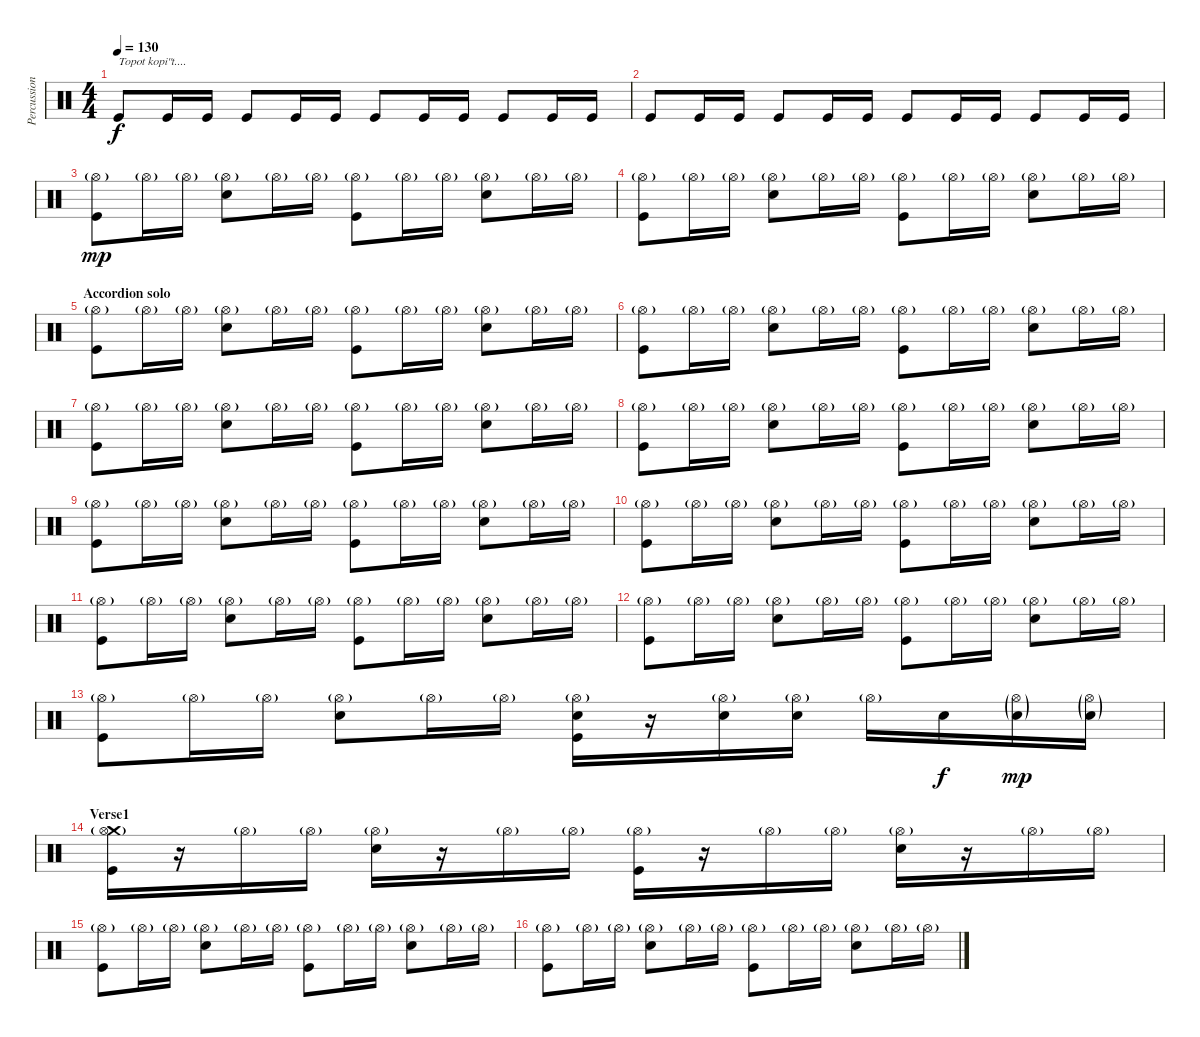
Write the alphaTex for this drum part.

\track ("Percussion" "Percussion") {instrument percussion}
\staff {score}
\articulation defaults
\ts (4 4)
\tempo 130
\clef neutral
\ks c "Kick (hit)".8{txt "Topot kopi\"t...." dy f balance 16} "Kick (hit)".16 "Kick (hit)".16 "Kick (hit)".8 "Kick (hit)".16 "Kick (hit)".16 "Kick (hit)".8 "Kick (hit)".16 "Kick (hit)".16 "Kick (hit)".8 "Kick (hit)".16 "Kick (hit)".16
|
"Kick (hit)".8 "Kick (hit)".16 "Kick (hit)".16 "Kick (hit)".8 "Kick (hit)".16 "Kick (hit)".16 "Kick (hit)".8 "Kick (hit)".16 "Kick (hit)".16 "Kick (hit)".8 "Kick (hit)".16 "Kick (hit)".16 |
\section ("" "")
("Hi-Hat (open)"{g} "Kick (hit)").8{dy mp balance 8} "Hi-Hat (open)"{g}.16 "Hi-Hat (open)"{g}.16 ("Hi-Hat (open)"{g} "Snare (hit) 2").8 "Hi-Hat (open)"{g}.16 "Hi-Hat (open)"{g}.16 ("Hi-Hat (open)"{g} "Kick (hit)").8 "Hi-Hat (open)"{g}.16 "Hi-Hat (open)"{g}.16 ("Hi-Hat (open)"{g} "Snare (hit) 2").8 "Hi-Hat (open)"{g}.16 "Hi-Hat (open)"{g}.16 |
("Hi-Hat (open)"{g} "Kick (hit)").8 "Hi-Hat (open)"{g}.16 "Hi-Hat (open)"{g}.16 ("Hi-Hat (open)"{g} "Snare (hit) 2").8 "Hi-Hat (open)"{g}.16 "Hi-Hat (open)"{g}.16 ("Hi-Hat (open)"{g} "Kick (hit)").8 "Hi-Hat (open)"{g}.16 "Hi-Hat (open)"{g}.16 ("Hi-Hat (open)"{g} "Snare (hit) 2").8 "Hi-Hat (open)"{g}.16 "Hi-Hat (open)"{g}.16 |
\section ("" "Accordion solo")
("Hi-Hat (open)"{g} "Kick (hit)").8{balance 8} "Hi-Hat (open)"{g}.16 "Hi-Hat (open)"{g}.16 ("Hi-Hat (open)"{g} "Snare (hit) 2").8 "Hi-Hat (open)"{g}.16 "Hi-Hat (open)"{g}.16 ("Hi-Hat (open)"{g} "Kick (hit)").8 "Hi-Hat (open)"{g}.16 "Hi-Hat (open)"{g}.16 ("Hi-Hat (open)"{g} "Snare (hit) 2").8 "Hi-Hat (open)"{g}.16 "Hi-Hat (open)"{g}.16 |
("Hi-Hat (open)"{g} "Kick (hit)").8 "Hi-Hat (open)"{g}.16 "Hi-Hat (open)"{g}.16 ("Hi-Hat (open)"{g} "Snare (hit) 2").8 "Hi-Hat (open)"{g}.16 "Hi-Hat (open)"{g}.16 ("Hi-Hat (open)"{g} "Kick (hit)").8 "Hi-Hat (open)"{g}.16 "Hi-Hat (open)"{g}.16 ("Hi-Hat (open)"{g} "Snare (hit) 2").8 "Hi-Hat (open)"{g}.16 "Hi-Hat (open)"{g}.16 |
("Hi-Hat (open)"{g} "Kick (hit)").8 "Hi-Hat (open)"{g}.16 "Hi-Hat (open)"{g}.16 ("Hi-Hat (open)"{g} "Snare (hit) 2").8 "Hi-Hat (open)"{g}.16 "Hi-Hat (open)"{g}.16 ("Hi-Hat (open)"{g} "Kick (hit)").8 "Hi-Hat (open)"{g}.16 "Hi-Hat (open)"{g}.16 ("Hi-Hat (open)"{g} "Snare (hit) 2").8 "Hi-Hat (open)"{g}.16 "Hi-Hat (open)"{g}.16 |
("Hi-Hat (open)"{g} "Kick (hit)").8 "Hi-Hat (open)"{g}.16 "Hi-Hat (open)"{g}.16 ("Hi-Hat (open)"{g} "Snare (hit) 2").8 "Hi-Hat (open)"{g}.16 "Hi-Hat (open)"{g}.16 ("Hi-Hat (open)"{g} "Kick (hit)").8 "Hi-Hat (open)"{g}.16 "Hi-Hat (open)"{g}.16 ("Hi-Hat (open)"{g} "Snare (hit) 2").8 "Hi-Hat (open)"{g}.16 "Hi-Hat (open)"{g}.16 |
("Hi-Hat (open)"{g} "Kick (hit)").8{balance 8} "Hi-Hat (open)"{g}.16 "Hi-Hat (open)"{g}.16 ("Hi-Hat (open)"{g} "Snare (hit) 2").8 "Hi-Hat (open)"{g}.16 "Hi-Hat (open)"{g}.16 ("Hi-Hat (open)"{g} "Kick (hit)").8 "Hi-Hat (open)"{g}.16 "Hi-Hat (open)"{g}.16 ("Hi-Hat (open)"{g} "Snare (hit) 2").8 "Hi-Hat (open)"{g}.16 "Hi-Hat (open)"{g}.16 |
("Hi-Hat (open)"{g} "Kick (hit)").8{balance 8} "Hi-Hat (open)"{g}.16 "Hi-Hat (open)"{g}.16 ("Hi-Hat (open)"{g} "Snare (hit) 2").8 "Hi-Hat (open)"{g}.16 "Hi-Hat (open)"{g}.16 ("Hi-Hat (open)"{g} "Kick (hit)").8 "Hi-Hat (open)"{g}.16 "Hi-Hat (open)"{g}.16 ("Hi-Hat (open)"{g} "Snare (hit) 2").8 "Hi-Hat (open)"{g}.16 "Hi-Hat (open)"{g}.16 |
("Hi-Hat (open)"{g} "Kick (hit)").8{balance 8} "Hi-Hat (open)"{g}.16 "Hi-Hat (open)"{g}.16 ("Hi-Hat (open)"{g} "Snare (hit) 2").8 "Hi-Hat (open)"{g}.16 "Hi-Hat (open)"{g}.16 ("Hi-Hat (open)"{g} "Kick (hit)").8 "Hi-Hat (open)"{g}.16 "Hi-Hat (open)"{g}.16 ("Hi-Hat (open)"{g} "Snare (hit) 2").8 "Hi-Hat (open)"{g}.16 "Hi-Hat (open)"{g}.16 |
("Hi-Hat (open)"{g} "Kick (hit)").8{balance 8} "Hi-Hat (open)"{g}.16 "Hi-Hat (open)"{g}.16 ("Hi-Hat (open)"{g} "Snare (hit) 2").8 "Hi-Hat (open)"{g}.16 "Hi-Hat (open)"{g}.16 ("Hi-Hat (open)"{g} "Kick (hit)").8 "Hi-Hat (open)"{g}.16 "Hi-Hat (open)"{g}.16 ("Hi-Hat (open)"{g} "Snare (hit) 2").8 "Hi-Hat (open)"{g}.16 "Hi-Hat (open)"{g}.16 |
("Hi-Hat (open)"{g} "Kick (hit)").8{balance 8} "Hi-Hat (open)"{g}.16 "Hi-Hat (open)"{g}.16 ("Hi-Hat (open)"{g} "Snare (hit) 2").8 "Hi-Hat (open)"{g}.16 "Hi-Hat (open)"{g}.16 ("Snare (hit) 2" "Hi-Hat (open)"{g} "Kick (hit)").16 r.16 ("Snare (hit) 2" "Hi-Hat (open)"{g}).16 ("Snare (hit) 2" "Hi-Hat (open)"{g}).16 "Hi-Hat (open)"{g}.16 "Snare (hit) 2".16{dy f} ("Snare (hit) 2"{g} "Hi-Hat (open)"{g}).16{dy mp} ("Snare (hit) 2"{g} "Hi-Hat (open)"{g}).16 |
\section ("" "Verse1")
("Crash medium (hit)" "Hi-Hat (open)"{g} "Kick (hit)").16{balance 8} r.16 "Hi-Hat (open)"{g}.16 "Hi-Hat (open)"{g}.16 ("Hi-Hat (open)"{g} "Snare (hit) 2").16 r.16 "Hi-Hat (open)"{g}.16 "Hi-Hat (open)"{g}.16 ("Hi-Hat (open)"{g} "Kick (hit)").16 r.16 "Hi-Hat (open)"{g}.16 "Hi-Hat (open)"{g}.16 ("Hi-Hat (open)"{g} "Snare (hit) 2").16 r.16 "Hi-Hat (open)"{g}.16 "Hi-Hat (open)"{g}.16 |
("Hi-Hat (open)"{g} "Kick (hit)").8{balance 8} "Hi-Hat (open)"{g}.16 "Hi-Hat (open)"{g}.16 ("Hi-Hat (open)"{g} "Snare (hit) 2").8 "Hi-Hat (open)"{g}.16 "Hi-Hat (open)"{g}.16 ("Hi-Hat (open)"{g} "Kick (hit)").8 "Hi-Hat (open)"{g}.16 "Hi-Hat (open)"{g}.16 ("Hi-Hat (open)"{g} "Snare (hit) 2").8 "Hi-Hat (open)"{g}.16 "Hi-Hat (open)"{g}.16 |
("Hi-Hat (open)"{g} "Kick (hit)").8{balance 8} "Hi-Hat (open)"{g}.16 "Hi-Hat (open)"{g}.16 ("Hi-Hat (open)"{g} "Snare (hit) 2").8 "Hi-Hat (open)"{g}.16 "Hi-Hat (open)"{g}.16 ("Hi-Hat (open)"{g} "Kick (hit)").8 "Hi-Hat (open)"{g}.16 "Hi-Hat (open)"{g}.16 ("Hi-Hat (open)"{g} "Snare (hit) 2").8 "Hi-Hat (open)"{g}.16 "Hi-Hat (open)"{g}.16
